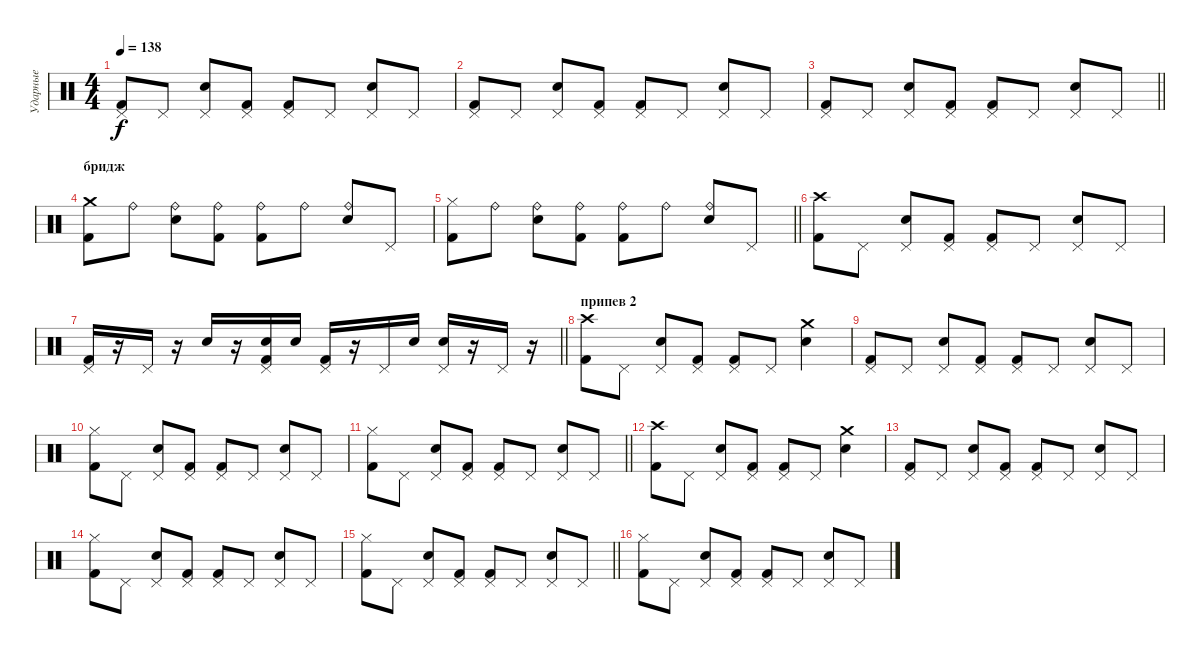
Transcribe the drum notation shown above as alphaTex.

\track ("Ударные" "Ударные") {instrument percussion}
\staff {score}
\articulation defaults
\ts (4 4)
\tempo 138
\clef neutral
\ks c
("Pedal Hi-Hat (hit)" "Kick (hit) 2").8{dy f} "Pedal Hi-Hat (hit)".8 ("Pedal Hi-Hat (hit)" "Electric Snare (hit)").8 ("Pedal Hi-Hat (hit)" "Kick (hit) 2").8 ("Pedal Hi-Hat (hit)" "Kick (hit) 2").8 "Pedal Hi-Hat (hit)".8 ("Pedal Hi-Hat (hit)" "Electric Snare (hit)").8 "Pedal Hi-Hat (hit)".8 |
("Pedal Hi-Hat (hit)" "Kick (hit) 2").8 "Pedal Hi-Hat (hit)".8 ("Pedal Hi-Hat (hit)" "Electric Snare (hit)").8 ("Pedal Hi-Hat (hit)" "Kick (hit) 2").8 ("Pedal Hi-Hat (hit)" "Kick (hit) 2").8 "Pedal Hi-Hat (hit)".8 ("Pedal Hi-Hat (hit)" "Electric Snare (hit)").8 "Pedal Hi-Hat (hit)".8 |
\barLineRight lightlight
("Pedal Hi-Hat (hit)" "Kick (hit) 2").8 "Pedal Hi-Hat (hit)".8 ("Pedal Hi-Hat (hit)" "Electric Snare (hit)").8 ("Pedal Hi-Hat (hit)" "Kick (hit) 2").8 ("Pedal Hi-Hat (hit)" "Kick (hit) 2").8 "Pedal Hi-Hat (hit)".8 ("Pedal Hi-Hat (hit)" "Electric Snare (hit)").8 "Pedal Hi-Hat (hit)".8 |
\section ("" "бридж")
("Crash medium (hit)" "Kick (hit) 2").8 "Ride (bell)".8 ("Ride (bell)" "Electric Snare (hit)").8 ("Ride (bell)" "Kick (hit) 2").8 ("Ride (bell)" "Kick (hit) 2").8 "Ride (bell)".8 ("Ride (bell)" "Electric Snare (hit)").8 "Pedal Hi-Hat (hit)".8 |
\barLineRight lightlight
("Hi-Hat (closed)" "Kick (hit) 2").8 "Ride (bell)".8 ("Ride (bell)" "Electric Snare (hit)").8 ("Ride (bell)" "Kick (hit) 2").8 ("Ride (bell)" "Kick (hit) 2").8 "Ride (bell)".8 ("Ride (bell)" "Electric Snare (hit)").8 "Pedal Hi-Hat (hit)".8 |
("Crash high (hit)" "Kick (hit) 2").8 "Pedal Hi-Hat (hit)".8 ("Pedal Hi-Hat (hit)" "Electric Snare (hit)").8 ("Pedal Hi-Hat (hit)" "Kick (hit) 2").8 ("Pedal Hi-Hat (hit)" "Kick (hit) 2").8 "Pedal Hi-Hat (hit)".8 ("Pedal Hi-Hat (hit)" "Electric Snare (hit)").8 "Pedal Hi-Hat (hit)".8 |
\barLineRight lightlight
("Pedal Hi-Hat (hit)" "Kick (hit) 2").16 r.16 "Pedal Hi-Hat (hit)".16 r.16 "Electric Snare (hit)".16 r.16 ("Pedal Hi-Hat (hit)" "Electric Snare (hit)" "Kick (hit) 2").16 "Electric Snare (hit)".16 ("Pedal Hi-Hat (hit)" "Kick (hit) 2").16 r.16 "Pedal Hi-Hat (hit)".16 "Electric Snare (hit)".16 ("Pedal Hi-Hat (hit)" "Electric Snare (hit)").16 r.16 "Pedal Hi-Hat (hit)".16 r.16 |
\section ("" "припев 2")
("Crash high (hit)" "Kick (hit) 2").8 "Pedal Hi-Hat (hit)".8 ("Pedal Hi-Hat (hit)" "Electric Snare (hit)").8 ("Pedal Hi-Hat (hit)" "Kick (hit) 2").8 ("Pedal Hi-Hat (hit)" "Kick (hit) 2").8 "Pedal Hi-Hat (hit)".8 ("Crash medium (hit)" "Electric Snare (hit)").4 |
("Pedal Hi-Hat (hit)" "Kick (hit) 2").8 "Pedal Hi-Hat (hit)".8 ("Pedal Hi-Hat (hit)" "Electric Snare (hit)").8 ("Pedal Hi-Hat (hit)" "Kick (hit) 2").8 ("Pedal Hi-Hat (hit)" "Kick (hit) 2").8 "Pedal Hi-Hat (hit)".8 ("Pedal Hi-Hat (hit)" "Electric Snare (hit)").8 "Pedal Hi-Hat (hit)".8 |
("Hi-Hat (closed)" "Kick (hit) 2").8 "Pedal Hi-Hat (hit)".8 ("Pedal Hi-Hat (hit)" "Electric Snare (hit)").8 ("Pedal Hi-Hat (hit)" "Kick (hit) 2").8 ("Pedal Hi-Hat (hit)" "Kick (hit) 2").8 "Pedal Hi-Hat (hit)".8 ("Pedal Hi-Hat (hit)" "Electric Snare (hit)").8 "Pedal Hi-Hat (hit)".8 |
\barLineRight lightlight
("Hi-Hat (closed)" "Kick (hit) 2").8 "Pedal Hi-Hat (hit)".8 ("Pedal Hi-Hat (hit)" "Electric Snare (hit)").8 ("Pedal Hi-Hat (hit)" "Kick (hit) 2").8 ("Pedal Hi-Hat (hit)" "Kick (hit) 2").8 "Pedal Hi-Hat (hit)".8 ("Pedal Hi-Hat (hit)" "Electric Snare (hit)").8 "Pedal Hi-Hat (hit)".8 |
("Crash high (hit)" "Kick (hit) 2").8 "Pedal Hi-Hat (hit)".8 ("Pedal Hi-Hat (hit)" "Electric Snare (hit)").8 ("Pedal Hi-Hat (hit)" "Kick (hit) 2").8 ("Pedal Hi-Hat (hit)" "Kick (hit) 2").8 "Pedal Hi-Hat (hit)".8 ("Crash medium (hit)" "Electric Snare (hit)").4 |
("Pedal Hi-Hat (hit)" "Kick (hit) 2").8 "Pedal Hi-Hat (hit)".8 ("Pedal Hi-Hat (hit)" "Electric Snare (hit)").8 ("Pedal Hi-Hat (hit)" "Kick (hit) 2").8 ("Pedal Hi-Hat (hit)" "Kick (hit) 2").8 "Pedal Hi-Hat (hit)".8 ("Pedal Hi-Hat (hit)" "Electric Snare (hit)").8 "Pedal Hi-Hat (hit)".8 |
("Hi-Hat (closed)" "Kick (hit) 2").8 "Pedal Hi-Hat (hit)".8 ("Pedal Hi-Hat (hit)" "Electric Snare (hit)").8 ("Pedal Hi-Hat (hit)" "Kick (hit) 2").8 ("Pedal Hi-Hat (hit)" "Kick (hit) 2").8 "Pedal Hi-Hat (hit)".8 ("Pedal Hi-Hat (hit)" "Electric Snare (hit)").8 "Pedal Hi-Hat (hit)".8 |
\barLineRight lightlight
("Hi-Hat (closed)" "Kick (hit) 2").8 "Pedal Hi-Hat (hit)".8 ("Pedal Hi-Hat (hit)" "Electric Snare (hit)").8 ("Pedal Hi-Hat (hit)" "Kick (hit) 2").8 ("Pedal Hi-Hat (hit)" "Kick (hit) 2").8 "Pedal Hi-Hat (hit)".8 ("Pedal Hi-Hat (hit)" "Electric Snare (hit)").8 "Pedal Hi-Hat (hit)".8 |
("Hi-Hat (closed)" "Kick (hit) 2").8 "Pedal Hi-Hat (hit)".8 ("Pedal Hi-Hat (hit)" "Electric Snare (hit)").8 ("Pedal Hi-Hat (hit)" "Kick (hit) 2").8 ("Pedal Hi-Hat (hit)" "Kick (hit) 2").8 "Pedal Hi-Hat (hit)".8 ("Pedal Hi-Hat (hit)" "Electric Snare (hit)").8 "Pedal Hi-Hat (hit)".8
